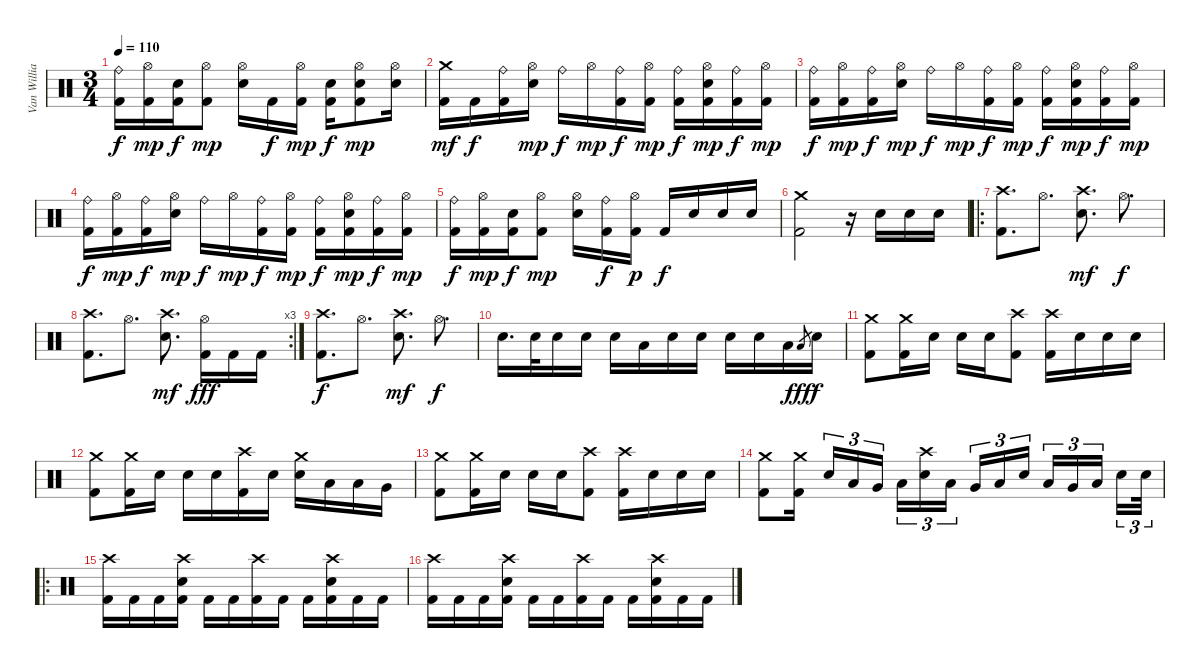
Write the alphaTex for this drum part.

\track ("Van Williams" "Van Willia") {instrument percussion}
\staff {score}
\articulation defaults
\ts (3 4)
\tempo 110
\clef neutral
\ks c
("Ride (bell)" "Kick (hit) 2").16{dy f} ("Hi-Hat (open)" "Kick (hit) 2").16{dy mp} ("Electric Snare (hit)" "Kick (hit) 2").16{dy f} ("Hi-Hat (open)" "Kick (hit) 2").8{dy mp} ("Hi-Hat (open)" "Electric Snare (hit)").16 "Kick (hit) 2".16{dy f} ("Hi-Hat (open)" "Kick (hit) 2").16{dy mp} ("Electric Snare (hit)" "Kick (hit) 2").16{dy f} ("Hi-Hat (open)" "Electric Snare (hit)" "Kick (hit) 2").8{dy mp} ("Hi-Hat (open)" "Electric Snare (hit)").16 |
("Crash medium (hit)" "Kick (hit) 2").16{dy mf} "Kick (hit) 2".16{dy f} ("Ride (bell)" "Kick (hit) 2").16 ("Hi-Hat (open)" "Electric Snare (hit)").16{dy mp} "Ride (bell)".16{dy f} "Hi-Hat (open)".16{dy mp} ("Ride (bell)" "Kick (hit) 2").16{dy f} ("Hi-Hat (open)" "Kick (hit) 2").16{dy mp} ("Ride (bell)" "Kick (hit) 2").16{dy f} ("Hi-Hat (open)" "Electric Snare (hit)" "Kick (hit) 2").16{dy mp} ("Ride (bell)" "Kick (hit) 2").16{dy f} ("Hi-Hat (open)" "Kick (hit) 2").16{dy mp} |
("Ride (bell)" "Kick (hit) 2").16{dy f} ("Hi-Hat (open)" "Kick (hit) 2").16{dy mp} ("Ride (bell)" "Kick (hit) 2").16{dy f} ("Hi-Hat (open)" "Electric Snare (hit)").16{dy mp} "Ride (bell)".16{dy f} "Hi-Hat (open)".16{dy mp} ("Ride (bell)" "Kick (hit) 2").16{dy f} ("Hi-Hat (open)" "Kick (hit) 2").16{dy mp} ("Ride (bell)" "Kick (hit) 2").16{dy f} ("Hi-Hat (open)" "Electric Snare (hit)" "Kick (hit) 2").16{dy mp} ("Ride (bell)" "Kick (hit) 2").16{dy f} ("Hi-Hat (open)" "Kick (hit) 2").16{dy mp} |
("Ride (bell)" "Kick (hit) 2").16{dy f} ("Hi-Hat (open)" "Kick (hit) 2").16{dy mp} ("Ride (bell)" "Kick (hit) 2").16{dy f} ("Hi-Hat (open)" "Electric Snare (hit)").16{dy mp} "Ride (bell)".16{dy f} "Hi-Hat (open)".16{dy mp} ("Ride (bell)" "Kick (hit) 2").16{dy f} ("Hi-Hat (open)" "Kick (hit) 2").16{dy mp} ("Ride (bell)" "Kick (hit) 2").16{dy f} ("Hi-Hat (open)" "Electric Snare (hit)" "Kick (hit) 2").16{dy mp} ("Ride (bell)" "Kick (hit) 2").16{dy f} ("Hi-Hat (open)" "Kick (hit) 2").16{dy mp} |
("Ride (bell)" "Kick (hit) 2").16{dy f} ("Hi-Hat (open)" "Kick (hit) 2").16{dy mp} ("Electric Snare (hit)" "Kick (hit) 2").16{dy f} ("Hi-Hat (open)" "Kick (hit) 2").8{dy mp} ("Hi-Hat (open)" "Electric Snare (hit)").16 ("Ride (bell)" "Kick (hit) 2").16{dy f} ("Hi-Hat (open)" "Kick (hit) 2").16{dy p} "Kick (hit) 2".16{dy f} "Electric Snare (hit)".16 "Electric Snare (hit)".16 "Electric Snare (hit)".16 |
("Crash medium (hit)" "Kick (hit) 2").2 r.16 "Electric Snare (hit)".16 "Electric Snare (hit)".16 "Electric Snare (hit)".16 |
\ro
("Crash high (hit)" "Kick (hit) 2").8{d} "Hi-Hat (open)".8{d} ("Crash high (hit)" "Electric Snare (hit)").8{d dy mf} "Hi-Hat (open)".8{d dy f} |
\rc 3
("Crash high (hit)" "Kick (hit) 2").8{d} "Hi-Hat (open)".8{d} ("Crash high (hit)" "Electric Snare (hit)").8{d dy mf} ("Hi-Hat (open)" "Kick (hit) 2").16{dy fff} "Kick (hit) 2".16 "Kick (hit) 2".16 |
("Crash high (hit)" "Kick (hit) 2").8{d dy f} "Hi-Hat (open)".8{d} ("Crash high (hit)" "Electric Snare (hit)").8{d dy mf} "Hi-Hat (open)".8{d dy f} |
"Electric Snare (hit)".16{d} "Electric Snare (hit)".32 "Electric Snare (hit)".16 "Electric Snare (hit)".16 "Electric Snare (hit)".16 "Low Tom (hit)".16 "Electric Snare (hit)".16 "Electric Snare (hit)".16 "Electric Snare (hit)".16 "Electric Snare (hit)".16 "Low Tom (hit)".16 "Low Tom (hit)".8{gr dy fff} "Electric Snare (hit)".16{dy f} |
("Crash medium (hit)" "Kick (hit) 2").8 ("Crash medium (hit)" "Kick (hit) 2").16 "Electric Snare (hit)".16 "Electric Snare (hit)".16 "Electric Snare (hit)".16 ("Crash high (hit)" "Kick (hit) 2").8 ("Crash high (hit)" "Kick (hit) 2").16 "Electric Snare (hit)".16 "Electric Snare (hit)".16 "Electric Snare (hit)".16 |
("Crash medium (hit)" "Kick (hit) 2").8 ("Crash medium (hit)" "Kick (hit) 2").16 "Electric Snare (hit)".16 "Electric Snare (hit)".16 "Electric Snare (hit)".16 ("Crash high (hit)" "Kick (hit) 2").16 "Electric Snare (hit)".16 ("Crash medium (hit)" "Electric Snare (hit)").16 "Low Tom (hit)".16 "Low Tom (hit)".16 "Very Low Tom (hit)".16 |
("Crash medium (hit)" "Kick (hit) 2").8 ("Crash medium (hit)" "Kick (hit) 2").16 "Electric Snare (hit)".16 "Electric Snare (hit)".16 "Electric Snare (hit)".16 ("Crash high (hit)" "Kick (hit) 2").8 ("Crash high (hit)" "Kick (hit) 2").16 "Electric Snare (hit)".16 "Electric Snare (hit)".16 "Electric Snare (hit)".16 |
("Crash medium (hit)" "Kick (hit) 2").8 ("Crash medium (hit)" "Kick (hit) 2").16{beam splitsecondary} "Electric Snare (hit)".16{tu (3 2)} "Low Tom (hit)".16{tu (3 2)} "Very Low Tom (hit)".16{tu (3 2) beam splitsecondary} "Low Floor Tom (hit)".16{tu (3 2)} ("Crash high (hit)" "Electric Snare (hit)").16{tu (3 2)} "Low Tom (hit)".16{tu (3 2) beam splitsecondary} "Very Low Tom (hit)".16{tu (3 2)} "Low Floor Tom (hit)".16{tu (3 2)} "Electric Snare (hit)".16{tu (3 2) beam splitsecondary} "Low Tom (hit)".16{tu (3 2)} "Very Low Tom (hit)".16{tu (3 2)} "Low Floor Tom (hit)".16{tu (3 2) beam splitsecondary} "Electric Snare (hit)".16{tu (3 2)} "Electric Snare (hit)".32{tu (3 2)} |
\ro
("Crash high (hit)" "Kick (hit) 2").16 "Kick (hit) 2".16 "Kick (hit) 2".16 ("Crash high (hit)" "Electric Snare (hit)" "Kick (hit) 2").16 "Kick (hit) 2".16 "Kick (hit) 2".16 ("Crash high (hit)" "Kick (hit) 2").16 "Kick (hit) 2".16 "Kick (hit) 2".16 ("Crash high (hit)" "Electric Snare (hit)" "Kick (hit) 2").16 "Kick (hit) 2".16 "Kick (hit) 2".16 |
("Crash high (hit)" "Kick (hit) 2").16 "Kick (hit) 2".16 "Kick (hit) 2".16 ("Crash high (hit)" "Electric Snare (hit)" "Kick (hit) 2").16 "Kick (hit) 2".16 "Kick (hit) 2".16 ("Crash high (hit)" "Kick (hit) 2").16 "Kick (hit) 2".16 "Kick (hit) 2".16 ("Crash high (hit)" "Electric Snare (hit)" "Kick (hit) 2").16 "Kick (hit) 2".16 "Kick (hit) 2".16
